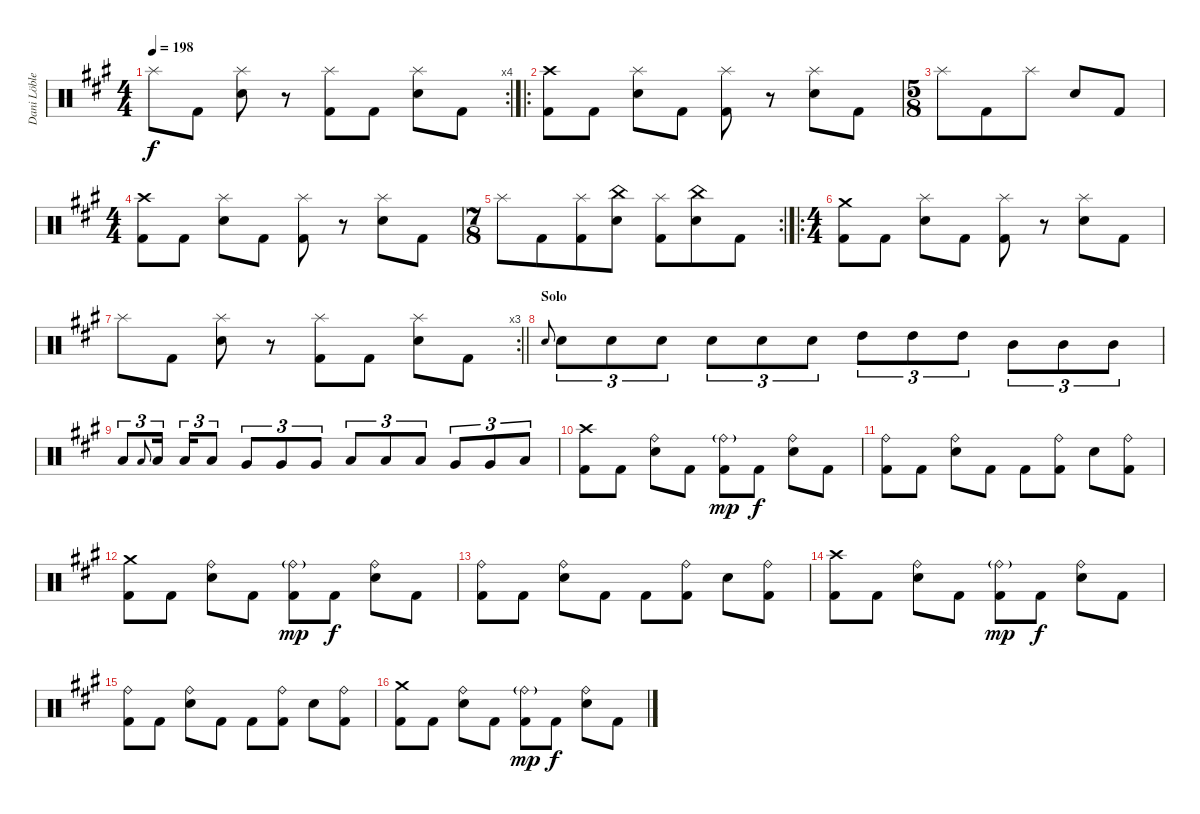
\track ("Dani Löble" "Dani Löble") {instrument percussion}
\staff {score}
\articulation defaults
\rc 4
\ts (4 4)
\tempo 198
\clef neutral
\ks f#minor "Splash (hit)".8{dy f} "Kick (hit) 2".8
("Splash (hit)" "Snare (hit) 2").8 r.8 ("Splash (hit)" "Kick (hit) 2").8 "Kick (hit) 2".8 ("Splash (hit)" "Snare (hit) 2").8 "Kick (hit) 2".8 |
\ro
("Crash high (hit)" "Kick (hit) 2").8 "Kick (hit) 2".8 ("Splash (hit)" "Snare (hit) 2").8 "Kick (hit) 2".8 ("Splash (hit)" "Kick (hit) 2").8 r.8 ("Splash (hit)" "Snare (hit) 2").8 "Kick (hit) 2".8 |
\ts (5 8)
"Splash (hit)".8 "Kick (hit) 2".8 "Splash (hit)".8 "Snare (hit) 2".8 "Kick (hit) 2".8 |
\ts (4 4)
("Crash high (hit)" "Kick (hit) 2").8 "Kick (hit) 2".8 ("Splash (hit)" "Snare (hit) 2").8 "Kick (hit) 2".8 ("Splash (hit)" "Kick (hit) 2").8 r.8 ("Splash (hit)" "Snare (hit) 2").8 "Kick (hit) 2".8 |
\rc 2
\ts (7 8)
"Splash (hit)".8 "Kick (hit) 2".8 ("Splash (hit)" "Kick (hit) 2").8 ("China (hit)" "Snare (hit) 2").8 ("Splash (hit)" "Kick (hit) 2").8 ("China (hit)" "Snare (hit) 2").8 "Kick (hit) 2".8 |
\ro
\ts (4 4)
("Crash medium (hit)" "Kick (hit) 2").8 "Kick (hit) 2".8 ("Splash (hit)" "Snare (hit) 2").8 "Kick (hit) 2".8 ("Splash (hit)" "Kick (hit) 2").8 r.8 ("Splash (hit)" "Snare (hit) 2").8 "Kick (hit) 2".8 |
\rc 3
\barLineRight lightlight "Splash (hit)".8 "Kick (hit) 2".8
("Splash (hit)" "Snare (hit) 2").8 r.8 ("Splash (hit)" "Kick (hit) 2").8 "Kick (hit) 2".8 ("Splash (hit)" "Snare (hit) 2").8 "Kick (hit) 2".8 |
\section ("" "Solo")
"Snare (hit) 2".8{gr onbeat} "Snare (hit) 2".8{tu (3 2)} "Snare (hit) 2".8{tu (3 2)} "Snare (hit) 2".8{tu (3 2)} "Snare (hit) 2".8{tu (3 2)} "Snare (hit) 2".8{tu (3 2)} "Snare (hit) 2".8{tu (3 2)} "High Tom (hit)".8{tu (3 2)} "High Tom (hit)".8{tu (3 2)} "High Tom (hit)".8{tu (3 2)} "Mid Tom (hit)".8{tu (3 2)} "Mid Tom (hit)".8{tu (3 2)} "Mid Tom (hit)".8{tu (3 2)} |
"Low Tom (hit)".8{tu (3 2)} "Low Tom (hit)".8{gr onbeat} "Low Tom (hit)".16{tu (3 2) beam splitsecondary} "Low Tom (hit)".16{tu (3 2)} "Low Tom (hit)".8{tu (3 2)} "Very Low Tom (hit)".8{tu (3 2)} "Very Low Tom (hit)".8{tu (3 2)} "Very Low Tom (hit)".8{tu (3 2)} "Low Floor Tom (hit)".8{tu (3 2)} "Low Floor Tom (hit)".8{tu (3 2)} "Low Floor Tom (hit)".8{tu (3 2)} "Very Low Tom (hit)".8{tu (3 2)} "Very Low Tom (hit)".8{tu (3 2)} "Low Floor Tom (hit)".8{tu (3 2)} |
("Crash high (hit)" "Kick (hit) 2").8 "Kick (hit) 2".8 ("Ride (bell)" "Snare (hit) 2").8 "Kick (hit) 2".8 ("Ride (bell)"{g} "Kick (hit) 2").8{dy mp} "Kick (hit) 2".8{dy f} ("Ride (bell)" "Snare (hit) 2").8 "Kick (hit) 2".8 |
("Ride (bell)" "Kick (hit) 2").8 "Kick (hit) 2".8 ("Ride (bell)" "Snare (hit) 2").8 "Kick (hit) 2".8 "Kick (hit) 2".8 ("Ride (bell)" "Kick (hit) 2").8 "Snare (hit) 2".8 ("Ride (bell)" "Kick (hit) 2").8 |
("Crash medium (hit)" "Kick (hit) 2").8 "Kick (hit) 2".8 ("Ride (bell)" "Snare (hit) 2").8 "Kick (hit) 2".8 ("Ride (bell)"{g} "Kick (hit) 2").8{dy mp} "Kick (hit) 2".8{dy f} ("Ride (bell)" "Snare (hit) 2").8 "Kick (hit) 2".8 |
("Ride (bell)" "Kick (hit) 2").8 "Kick (hit) 2".8 ("Ride (bell)" "Snare (hit) 2").8 "Kick (hit) 2".8 "Kick (hit) 2".8 ("Ride (bell)" "Kick (hit) 2").8 "Snare (hit) 2".8 ("Ride (bell)" "Kick (hit) 2").8 |
("Crash high (hit)" "Kick (hit) 2").8 "Kick (hit) 2".8 ("Ride (bell)" "Snare (hit) 2").8 "Kick (hit) 2".8 ("Ride (bell)"{g} "Kick (hit) 2").8{dy mp} "Kick (hit) 2".8{dy f} ("Ride (bell)" "Snare (hit) 2").8 "Kick (hit) 2".8 |
("Ride (bell)" "Kick (hit) 2").8 "Kick (hit) 2".8 ("Ride (bell)" "Snare (hit) 2").8 "Kick (hit) 2".8 "Kick (hit) 2".8 ("Ride (bell)" "Kick (hit) 2").8 "Snare (hit) 2".8 ("Ride (bell)" "Kick (hit) 2").8 |
("Crash medium (hit)" "Kick (hit) 2").8 "Kick (hit) 2".8 ("Ride (bell)" "Snare (hit) 2").8 "Kick (hit) 2".8 ("Ride (bell)"{g} "Kick (hit) 2").8{dy mp} "Kick (hit) 2".8{dy f} ("Ride (bell)" "Snare (hit) 2").8 "Kick (hit) 2".8
